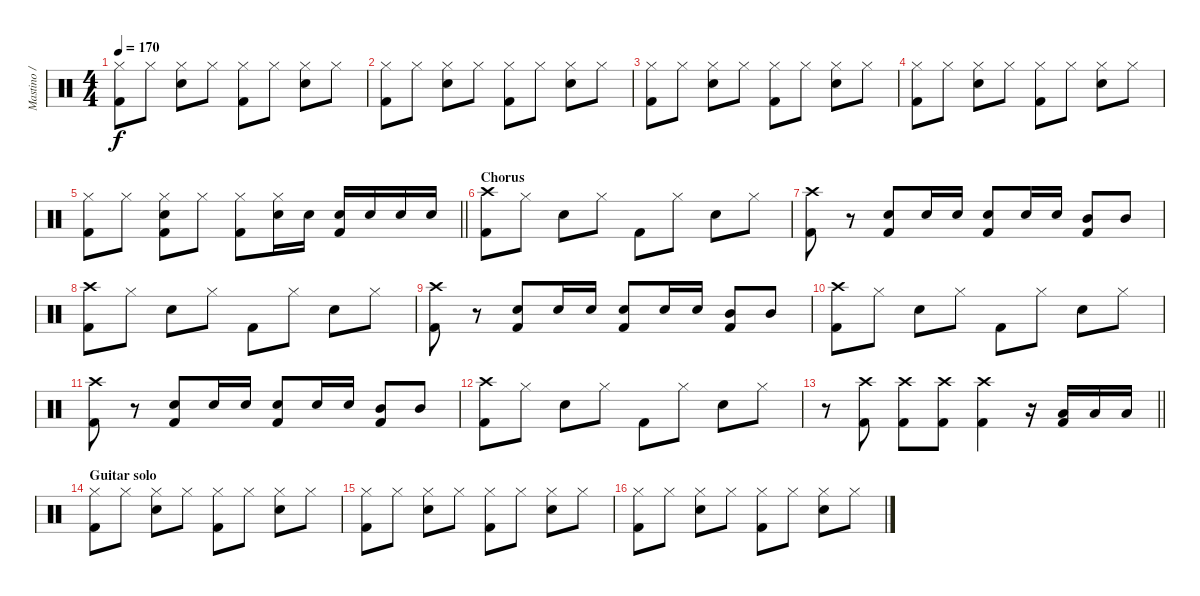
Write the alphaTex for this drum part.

\track ("Mastino / Drums" "Mastino / ") {instrument percussion}
\staff {score}
\articulation defaults
\ts (4 4)
\tempo 170
\clef neutral
\ks c
("Hi-Hat (closed)" "Kick (hit) 2").8{dy f} "Hi-Hat (closed)".8 ("Hi-Hat (closed)" "Electric Snare (hit)").8 "Hi-Hat (closed)".8 ("Hi-Hat (closed)" "Kick (hit) 2").8 "Hi-Hat (closed)".8 ("Hi-Hat (closed)" "Electric Snare (hit)").8 "Hi-Hat (closed)".8 |
("Hi-Hat (closed)" "Kick (hit) 2").8 "Hi-Hat (closed)".8 ("Hi-Hat (closed)" "Electric Snare (hit)").8 "Hi-Hat (closed)".8 ("Hi-Hat (closed)" "Kick (hit) 2").8 "Hi-Hat (closed)".8 ("Hi-Hat (closed)" "Electric Snare (hit)").8 "Hi-Hat (closed)".8 |
("Hi-Hat (closed)" "Kick (hit) 2").8 "Hi-Hat (closed)".8 ("Hi-Hat (closed)" "Electric Snare (hit)").8 "Hi-Hat (closed)".8 ("Hi-Hat (closed)" "Kick (hit) 2").8 "Hi-Hat (closed)".8 ("Hi-Hat (closed)" "Electric Snare (hit)").8 "Hi-Hat (closed)".8 |
("Hi-Hat (closed)" "Kick (hit) 2").8 "Hi-Hat (closed)".8 ("Hi-Hat (closed)" "Electric Snare (hit)").8 "Hi-Hat (closed)".8 ("Hi-Hat (closed)" "Kick (hit) 2").8 "Hi-Hat (closed)".8 ("Hi-Hat (closed)" "Electric Snare (hit)").8 "Hi-Hat (closed)".8 |
\barLineRight lightlight
("Hi-Hat (closed)" "Kick (hit) 2").8 "Hi-Hat (closed)".8 ("Hi-Hat (closed)" "Electric Snare (hit)" "Kick (hit) 2").8 "Hi-Hat (closed)".8 ("Hi-Hat (closed)" "Kick (hit) 2").8 ("Hi-Hat (closed)" "Electric Snare (hit)").16 "Electric Snare (hit)".16 ("Electric Snare (hit)" "Kick (hit) 2").16 "Electric Snare (hit)".16 "Electric Snare (hit)".16 "Electric Snare (hit)".16 |
\section ("" "Chorus")
("Crash high (hit)" "Kick (hit) 2").8 "Hi-Hat (closed)".8 "Electric Snare (hit)".8 "Hi-Hat (closed)".8 "Kick (hit) 2".8 "Hi-Hat (closed)".8 "Electric Snare (hit)".8 "Hi-Hat (closed)".8 |
("Crash high (hit)" "Kick (hit) 2").8 r.8 ("Electric Snare (hit)" "Kick (hit) 2").8 "Electric Snare (hit)".16 "Electric Snare (hit)".16 ("Electric Snare (hit)" "Kick (hit) 2").8 "Electric Snare (hit)".16 "Electric Snare (hit)".16 ("Mid Tom (hit)" "Kick (hit) 2").8 "Mid Tom (hit)".8 |
("Crash high (hit)" "Kick (hit) 2").8 "Hi-Hat (closed)".8 "Electric Snare (hit)".8 "Hi-Hat (closed)".8 "Kick (hit) 2".8 "Hi-Hat (closed)".8 "Electric Snare (hit)".8 "Hi-Hat (closed)".8 |
("Crash high (hit)" "Kick (hit) 2").8 r.8 ("Electric Snare (hit)" "Kick (hit) 2").8 "Electric Snare (hit)".16 "Electric Snare (hit)".16 ("Electric Snare (hit)" "Kick (hit) 2").8 "Electric Snare (hit)".16 "Electric Snare (hit)".16 ("Mid Tom (hit)" "Kick (hit) 2").8 "Mid Tom (hit)".8 |
("Crash high (hit)" "Kick (hit) 2").8 "Hi-Hat (closed)".8 "Electric Snare (hit)".8 "Hi-Hat (closed)".8 "Kick (hit) 2".8 "Hi-Hat (closed)".8 "Electric Snare (hit)".8 "Hi-Hat (closed)".8 |
("Crash high (hit)" "Kick (hit) 2").8 r.8 ("Electric Snare (hit)" "Kick (hit) 2").8 "Electric Snare (hit)".16 "Electric Snare (hit)".16 ("Electric Snare (hit)" "Kick (hit) 2").8 "Electric Snare (hit)".16 "Electric Snare (hit)".16 ("Mid Tom (hit)" "Kick (hit) 2").8 "Mid Tom (hit)".8 |
("Crash high (hit)" "Kick (hit) 2").8 "Hi-Hat (closed)".8 "Electric Snare (hit)".8 "Hi-Hat (closed)".8 "Kick (hit) 2".8 "Hi-Hat (closed)".8 "Electric Snare (hit)".8 "Hi-Hat (closed)".8 |
\barLineRight lightlight
r.8 ("Crash high (hit)" "Kick (hit) 2").8 ("Crash high (hit)" "Kick (hit) 2").8 ("Crash high (hit)" "Kick (hit) 2").8 ("Crash high (hit)" "Kick (hit) 2").4 r.16 ("Low Tom (hit)" "Kick (hit) 2").16 "Low Tom (hit)".16 "Low Tom (hit)".16 |
\section ("" "Guitar solo")
("Hi-Hat (closed)" "Kick (hit) 2").8 "Hi-Hat (closed)".8 ("Hi-Hat (closed)" "Electric Snare (hit)").8 "Hi-Hat (closed)".8 ("Hi-Hat (closed)" "Kick (hit) 2").8 "Hi-Hat (closed)".8 ("Hi-Hat (closed)" "Electric Snare (hit)").8 "Hi-Hat (closed)".8 |
("Hi-Hat (closed)" "Kick (hit) 2").8 "Hi-Hat (closed)".8 ("Hi-Hat (closed)" "Electric Snare (hit)").8 "Hi-Hat (closed)".8 ("Hi-Hat (closed)" "Kick (hit) 2").8 "Hi-Hat (closed)".8 ("Hi-Hat (closed)" "Electric Snare (hit)").8 "Hi-Hat (closed)".8 |
("Hi-Hat (closed)" "Kick (hit) 2").8 "Hi-Hat (closed)".8 ("Hi-Hat (closed)" "Electric Snare (hit)").8 "Hi-Hat (closed)".8 ("Hi-Hat (closed)" "Kick (hit) 2").8 "Hi-Hat (closed)".8 ("Hi-Hat (closed)" "Electric Snare (hit)").8 "Hi-Hat (closed)".8
